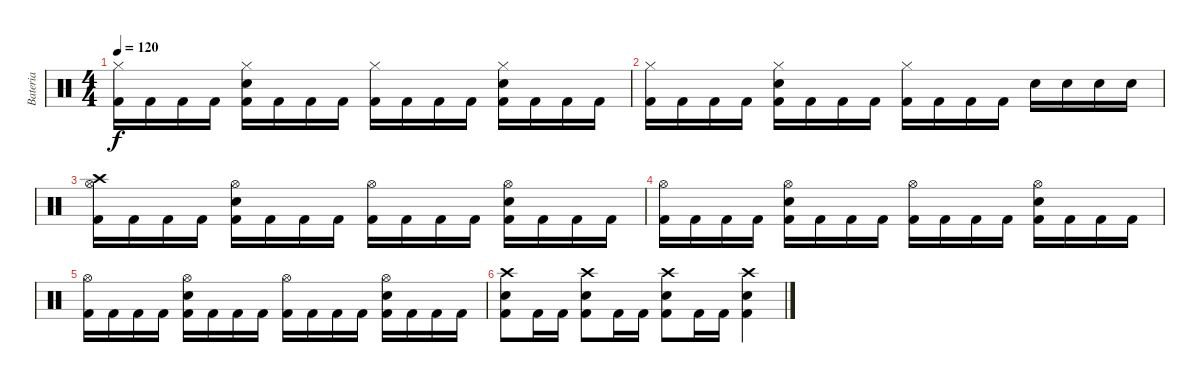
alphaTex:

\track ("Bateria" "Bateria") {instrument percussion}
\staff {score}
\articulation defaults
\ts (4 4)
\tempo 120
\clef neutral
\ks c
("Hi-Hat (closed)" "Kick (hit) 2").16{dy f} "Kick (hit) 2".16 "Kick (hit) 2".16 "Kick (hit) 2".16 ("Hi-Hat (closed)" "Snare (hit) 2" "Kick (hit) 2").16 "Kick (hit) 2".16 "Kick (hit) 2".16 "Kick (hit) 2".16 ("Hi-Hat (closed)" "Kick (hit) 2").16 "Kick (hit) 2".16 "Kick (hit) 2".16 "Kick (hit) 2".16 ("Hi-Hat (closed)" "Snare (hit) 2" "Kick (hit) 2").16 "Kick (hit) 2".16 "Kick (hit) 2".16 "Kick (hit) 2".16 |
("Hi-Hat (closed)" "Kick (hit) 2").16 "Kick (hit) 2".16 "Kick (hit) 2".16 "Kick (hit) 2".16 ("Hi-Hat (closed)" "Snare (hit) 2" "Kick (hit) 2").16 "Kick (hit) 2".16 "Kick (hit) 2".16 "Kick (hit) 2".16 ("Hi-Hat (closed)" "Kick (hit) 2").16 "Kick (hit) 2".16 "Kick (hit) 2".16 "Kick (hit) 2".16 "Snare (hit) 2".16 "Snare (hit) 2".16 "Snare (hit) 2".16 "Snare (hit) 2".16 |
("Hi-Hat (open)" "Kick (hit) 2" "Crash high (hit)").16 "Kick (hit) 2".16 "Kick (hit) 2".16 "Kick (hit) 2".16 ("Hi-Hat (open)" "Snare (hit) 2" "Kick (hit) 2").16 "Kick (hit) 2".16 "Kick (hit) 2".16 "Kick (hit) 2".16 ("Hi-Hat (open)" "Kick (hit) 2").16 "Kick (hit) 2".16 "Kick (hit) 2".16 "Kick (hit) 2".16 ("Hi-Hat (open)" "Snare (hit) 2" "Kick (hit) 2").16 "Kick (hit) 2".16 "Kick (hit) 2".16 "Kick (hit) 2".16 |
("Hi-Hat (open)" "Kick (hit) 2").16 "Kick (hit) 2".16 "Kick (hit) 2".16 "Kick (hit) 2".16 ("Hi-Hat (open)" "Snare (hit) 2" "Kick (hit) 2").16 "Kick (hit) 2".16 "Kick (hit) 2".16 "Kick (hit) 2".16 ("Hi-Hat (open)" "Kick (hit) 2").16 "Kick (hit) 2".16 "Kick (hit) 2".16 "Kick (hit) 2".16 ("Hi-Hat (open)" "Snare (hit) 2" "Kick (hit) 2").16 "Kick (hit) 2".16 "Kick (hit) 2".16 "Kick (hit) 2".16 |
("Hi-Hat (open)" "Kick (hit) 2").16 "Kick (hit) 2".16 "Kick (hit) 2".16 "Kick (hit) 2".16 ("Hi-Hat (open)" "Snare (hit) 2" "Kick (hit) 2").16 "Kick (hit) 2".16 "Kick (hit) 2".16 "Kick (hit) 2".16 ("Hi-Hat (open)" "Kick (hit) 2").16 "Kick (hit) 2".16 "Kick (hit) 2".16 "Kick (hit) 2".16 ("Hi-Hat (open)" "Snare (hit) 2" "Kick (hit) 2").16 "Kick (hit) 2".16 "Kick (hit) 2".16 "Kick (hit) 2".16 |
("Snare (hit) 2" "Kick (hit) 2" "Crash high (hit)").8 "Kick (hit) 2".16 "Kick (hit) 2".16 ("Snare (hit) 2" "Kick (hit) 2" "Crash high (hit)").8 "Kick (hit) 2".16 "Kick (hit) 2".16 ("Snare (hit) 2" "Kick (hit) 2" "Crash high (hit)").8 "Kick (hit) 2".16 "Kick (hit) 2".16 ("Snare (hit) 2" "Kick (hit) 2" "Crash high (hit)").4
